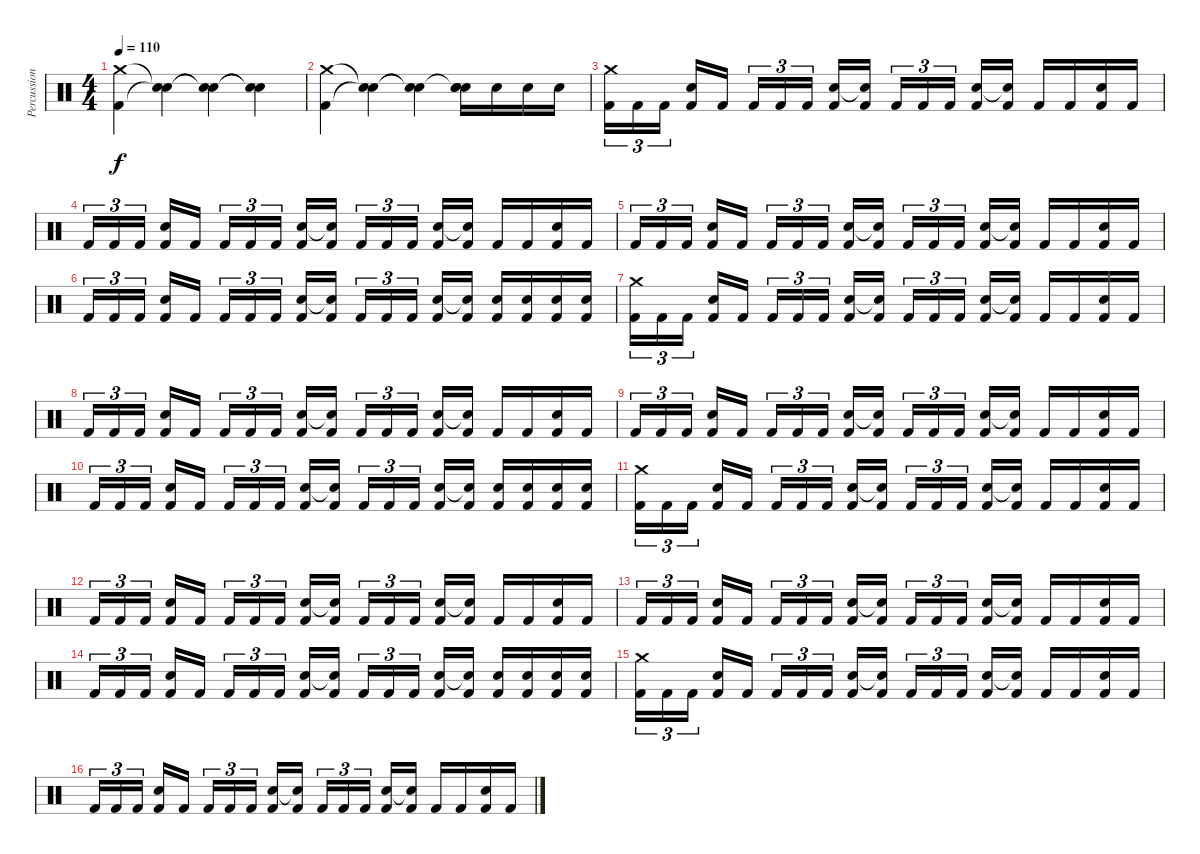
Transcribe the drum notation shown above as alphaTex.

\track ("Percussion" "Percussion") {instrument percussion}
\staff {score}
\articulation defaults
\ts (4 4)
\tempo 110
\clef neutral
\ks c
("Crash medium (hit)" "Kick (hit) 2").4{dy f} ("Snare (hit)"{t} "Snare (hit)"{t}).4 ("Snare (hit)"{t} "Snare (hit)"{t}).4 ("Snare (hit)"{t} "Snare (hit)"{t}).4 |
("Crash medium (hit)" "Kick (hit) 2").4 ("Snare (hit)"{t} "Snare (hit)"{t}).4 ("Snare (hit)"{t} "Snare (hit)"{t}).4 ("Snare (hit)"{t} "Snare (hit) 2" "Snare (hit)").16 "Electric Snare (hit)".16 "Electric Snare (hit)".16 "Electric Snare (hit)".16 |
("Crash medium (hit)" "Kick (hit) 2").16{tu (3 2)} "Kick (hit) 2".16{tu (3 2)} "Kick (hit) 2".16{tu (3 2)} ("Electric Snare (hit)" "Kick (hit) 2").16 "Kick (hit) 2".16 "Kick (hit) 2".16{tu (3 2)} "Kick (hit) 2".16{tu (3 2)} "Kick (hit) 2".16{tu (3 2)} ("Snare (hit) 2" "Kick (hit) 2").16 ("Snare (hit)"{t} "Kick (hit) 2").16 "Kick (hit) 2".16{tu (3 2)} "Kick (hit) 2".16{tu (3 2)} "Kick (hit) 2".16{tu (3 2)} ("Electric Snare (hit)" "Kick (hit) 2").16 ("Snare (hit)"{t} "Kick (hit) 2").16 "Kick (hit) 2".16 "Kick (hit) 2".16 ("Electric Snare (hit)" "Kick (hit) 2").16 "Kick (hit) 2".16 |
"Kick (hit) 2".16{tu (3 2)} "Kick (hit) 2".16{tu (3 2)} "Kick (hit) 2".16{tu (3 2)} ("Electric Snare (hit)" "Kick (hit) 2").16 "Kick (hit) 2".16 "Kick (hit) 2".16{tu (3 2)} "Kick (hit) 2".16{tu (3 2)} "Kick (hit) 2".16{tu (3 2)} ("Snare (hit) 2" "Kick (hit) 2").16 ("Snare (hit)"{t} "Kick (hit) 2").16 "Kick (hit) 2".16{tu (3 2)} "Kick (hit) 2".16{tu (3 2)} "Kick (hit) 2".16{tu (3 2)} ("Electric Snare (hit)" "Kick (hit) 2").16 ("Snare (hit)"{t} "Kick (hit) 2").16 "Kick (hit) 2".16 "Kick (hit) 2".16 ("Electric Snare (hit)" "Kick (hit) 2").16 "Kick (hit) 2".16 |
"Kick (hit) 2".16{tu (3 2)} "Kick (hit) 2".16{tu (3 2)} "Kick (hit) 2".16{tu (3 2)} ("Electric Snare (hit)" "Kick (hit) 2").16 "Kick (hit) 2".16 "Kick (hit) 2".16{tu (3 2)} "Kick (hit) 2".16{tu (3 2)} "Kick (hit) 2".16{tu (3 2)} ("Snare (hit) 2" "Kick (hit) 2").16 ("Snare (hit)"{t} "Kick (hit) 2").16 "Kick (hit) 2".16{tu (3 2)} "Kick (hit) 2".16{tu (3 2)} "Kick (hit) 2".16{tu (3 2)} ("Electric Snare (hit)" "Kick (hit) 2").16 ("Snare (hit)"{t} "Kick (hit) 2").16 "Kick (hit) 2".16 "Kick (hit) 2".16 ("Electric Snare (hit)" "Kick (hit) 2").16 "Kick (hit) 2".16 |
"Kick (hit) 2".16{tu (3 2)} "Kick (hit) 2".16{tu (3 2)} "Kick (hit) 2".16{tu (3 2)} ("Electric Snare (hit)" "Kick (hit) 2").16 "Kick (hit) 2".16 "Kick (hit) 2".16{tu (3 2)} "Kick (hit) 2".16{tu (3 2)} "Kick (hit) 2".16{tu (3 2)} ("Snare (hit) 2" "Kick (hit) 2").16 ("Snare (hit)"{t} "Kick (hit) 2").16 "Kick (hit) 2".16{tu (3 2)} "Kick (hit) 2".16{tu (3 2)} "Kick (hit) 2".16{tu (3 2)} ("Electric Snare (hit)" "Kick (hit) 2").16 ("Snare (hit)"{t} "Kick (hit) 2").16 ("Electric Snare (hit)" "Kick (hit) 2").16 ("Electric Snare (hit)" "Kick (hit) 2").16 ("Snare (hit) 2" "Kick (hit) 2").16 ("Electric Snare (hit)" "Kick (hit) 2").16 |
("Crash medium (hit)" "Kick (hit) 2").16{tu (3 2)} "Kick (hit) 2".16{tu (3 2)} "Kick (hit) 2".16{tu (3 2)} ("Electric Snare (hit)" "Kick (hit) 2").16 "Kick (hit) 2".16 "Kick (hit) 2".16{tu (3 2)} "Kick (hit) 2".16{tu (3 2)} "Kick (hit) 2".16{tu (3 2)} ("Snare (hit) 2" "Kick (hit) 2").16 ("Snare (hit)"{t} "Kick (hit) 2").16 "Kick (hit) 2".16{tu (3 2)} "Kick (hit) 2".16{tu (3 2)} "Kick (hit) 2".16{tu (3 2)} ("Electric Snare (hit)" "Kick (hit) 2").16 ("Snare (hit)"{t} "Kick (hit) 2").16 "Kick (hit) 2".16 "Kick (hit) 2".16 ("Electric Snare (hit)" "Kick (hit) 2").16 "Kick (hit) 2".16 |
"Kick (hit) 2".16{tu (3 2)} "Kick (hit) 2".16{tu (3 2)} "Kick (hit) 2".16{tu (3 2)} ("Electric Snare (hit)" "Kick (hit) 2").16 "Kick (hit) 2".16 "Kick (hit) 2".16{tu (3 2)} "Kick (hit) 2".16{tu (3 2)} "Kick (hit) 2".16{tu (3 2)} ("Snare (hit) 2" "Kick (hit) 2").16 ("Snare (hit)"{t} "Kick (hit) 2").16 "Kick (hit) 2".16{tu (3 2)} "Kick (hit) 2".16{tu (3 2)} "Kick (hit) 2".16{tu (3 2)} ("Electric Snare (hit)" "Kick (hit) 2").16 ("Snare (hit)"{t} "Kick (hit) 2").16 "Kick (hit) 2".16 "Kick (hit) 2".16 ("Electric Snare (hit)" "Kick (hit) 2").16 "Kick (hit) 2".16 |
"Kick (hit) 2".16{tu (3 2)} "Kick (hit) 2".16{tu (3 2)} "Kick (hit) 2".16{tu (3 2)} ("Electric Snare (hit)" "Kick (hit) 2").16 "Kick (hit) 2".16 "Kick (hit) 2".16{tu (3 2)} "Kick (hit) 2".16{tu (3 2)} "Kick (hit) 2".16{tu (3 2)} ("Snare (hit) 2" "Kick (hit) 2").16 ("Snare (hit)"{t} "Kick (hit) 2").16 "Kick (hit) 2".16{tu (3 2)} "Kick (hit) 2".16{tu (3 2)} "Kick (hit) 2".16{tu (3 2)} ("Electric Snare (hit)" "Kick (hit) 2").16 ("Snare (hit)"{t} "Kick (hit) 2").16 "Kick (hit) 2".16 "Kick (hit) 2".16 ("Electric Snare (hit)" "Kick (hit) 2").16 "Kick (hit) 2".16 |
"Kick (hit) 2".16{tu (3 2)} "Kick (hit) 2".16{tu (3 2)} "Kick (hit) 2".16{tu (3 2)} ("Electric Snare (hit)" "Kick (hit) 2").16 "Kick (hit) 2".16 "Kick (hit) 2".16{tu (3 2)} "Kick (hit) 2".16{tu (3 2)} "Kick (hit) 2".16{tu (3 2)} ("Snare (hit) 2" "Kick (hit) 2").16 ("Snare (hit)"{t} "Kick (hit) 2").16 "Kick (hit) 2".16{tu (3 2)} "Kick (hit) 2".16{tu (3 2)} "Kick (hit) 2".16{tu (3 2)} ("Electric Snare (hit)" "Kick (hit) 2").16 ("Snare (hit)"{t} "Kick (hit) 2").16 ("Electric Snare (hit)" "Kick (hit) 2").16 ("Electric Snare (hit)" "Kick (hit) 2").16 ("Snare (hit) 2" "Kick (hit) 2").16 ("Electric Snare (hit)" "Kick (hit) 2").16 |
("Crash medium (hit)" "Kick (hit) 2").16{tu (3 2)} "Kick (hit) 2".16{tu (3 2)} "Kick (hit) 2".16{tu (3 2)} ("Electric Snare (hit)" "Kick (hit) 2").16 "Kick (hit) 2".16 "Kick (hit) 2".16{tu (3 2)} "Kick (hit) 2".16{tu (3 2)} "Kick (hit) 2".16{tu (3 2)} ("Snare (hit) 2" "Kick (hit) 2").16 ("Snare (hit)"{t} "Kick (hit) 2").16 "Kick (hit) 2".16{tu (3 2)} "Kick (hit) 2".16{tu (3 2)} "Kick (hit) 2".16{tu (3 2)} ("Electric Snare (hit)" "Kick (hit) 2").16 ("Snare (hit)"{t} "Kick (hit) 2").16 "Kick (hit) 2".16 "Kick (hit) 2".16 ("Electric Snare (hit)" "Kick (hit) 2").16 "Kick (hit) 2".16 |
"Kick (hit) 2".16{tu (3 2)} "Kick (hit) 2".16{tu (3 2)} "Kick (hit) 2".16{tu (3 2)} ("Electric Snare (hit)" "Kick (hit) 2").16 "Kick (hit) 2".16 "Kick (hit) 2".16{tu (3 2)} "Kick (hit) 2".16{tu (3 2)} "Kick (hit) 2".16{tu (3 2)} ("Snare (hit) 2" "Kick (hit) 2").16 ("Snare (hit)"{t} "Kick (hit) 2").16 "Kick (hit) 2".16{tu (3 2)} "Kick (hit) 2".16{tu (3 2)} "Kick (hit) 2".16{tu (3 2)} ("Electric Snare (hit)" "Kick (hit) 2").16 ("Snare (hit)"{t} "Kick (hit) 2").16 "Kick (hit) 2".16 "Kick (hit) 2".16 ("Electric Snare (hit)" "Kick (hit) 2").16 "Kick (hit) 2".16 |
"Kick (hit) 2".16{tu (3 2)} "Kick (hit) 2".16{tu (3 2)} "Kick (hit) 2".16{tu (3 2)} ("Electric Snare (hit)" "Kick (hit) 2").16 "Kick (hit) 2".16 "Kick (hit) 2".16{tu (3 2)} "Kick (hit) 2".16{tu (3 2)} "Kick (hit) 2".16{tu (3 2)} ("Snare (hit) 2" "Kick (hit) 2").16 ("Snare (hit)"{t} "Kick (hit) 2").16 "Kick (hit) 2".16{tu (3 2)} "Kick (hit) 2".16{tu (3 2)} "Kick (hit) 2".16{tu (3 2)} ("Electric Snare (hit)" "Kick (hit) 2").16 ("Snare (hit)"{t} "Kick (hit) 2").16 "Kick (hit) 2".16 "Kick (hit) 2".16 ("Electric Snare (hit)" "Kick (hit) 2").16 "Kick (hit) 2".16 |
"Kick (hit) 2".16{tu (3 2)} "Kick (hit) 2".16{tu (3 2)} "Kick (hit) 2".16{tu (3 2)} ("Electric Snare (hit)" "Kick (hit) 2").16 "Kick (hit) 2".16 "Kick (hit) 2".16{tu (3 2)} "Kick (hit) 2".16{tu (3 2)} "Kick (hit) 2".16{tu (3 2)} ("Snare (hit) 2" "Kick (hit) 2").16 ("Snare (hit)"{t} "Kick (hit) 2").16 "Kick (hit) 2".16{tu (3 2)} "Kick (hit) 2".16{tu (3 2)} "Kick (hit) 2".16{tu (3 2)} ("Electric Snare (hit)" "Kick (hit) 2").16 ("Snare (hit)"{t} "Kick (hit) 2").16 ("Electric Snare (hit)" "Kick (hit) 2").16 ("Electric Snare (hit)" "Kick (hit) 2").16 ("Snare (hit) 2" "Kick (hit) 2").16 ("Electric Snare (hit)" "Kick (hit) 2").16 |
("Crash medium (hit)" "Kick (hit) 2").16{tu (3 2)} "Kick (hit) 2".16{tu (3 2)} "Kick (hit) 2".16{tu (3 2)} ("Electric Snare (hit)" "Kick (hit) 2").16 "Kick (hit) 2".16 "Kick (hit) 2".16{tu (3 2)} "Kick (hit) 2".16{tu (3 2)} "Kick (hit) 2".16{tu (3 2)} ("Snare (hit) 2" "Kick (hit) 2").16 ("Snare (hit)"{t} "Kick (hit) 2").16 "Kick (hit) 2".16{tu (3 2)} "Kick (hit) 2".16{tu (3 2)} "Kick (hit) 2".16{tu (3 2)} ("Electric Snare (hit)" "Kick (hit) 2").16 ("Snare (hit)"{t} "Kick (hit) 2").16 "Kick (hit) 2".16 "Kick (hit) 2".16 ("Electric Snare (hit)" "Kick (hit) 2").16 "Kick (hit) 2".16 |
"Kick (hit) 2".16{tu (3 2)} "Kick (hit) 2".16{tu (3 2)} "Kick (hit) 2".16{tu (3 2)} ("Electric Snare (hit)" "Kick (hit) 2").16 "Kick (hit) 2".16 "Kick (hit) 2".16{tu (3 2)} "Kick (hit) 2".16{tu (3 2)} "Kick (hit) 2".16{tu (3 2)} ("Snare (hit) 2" "Kick (hit) 2").16 ("Snare (hit)"{t} "Kick (hit) 2").16 "Kick (hit) 2".16{tu (3 2)} "Kick (hit) 2".16{tu (3 2)} "Kick (hit) 2".16{tu (3 2)} ("Electric Snare (hit)" "Kick (hit) 2").16 ("Snare (hit)"{t} "Kick (hit) 2").16 "Kick (hit) 2".16 "Kick (hit) 2".16 ("Electric Snare (hit)" "Kick (hit) 2").16 "Kick (hit) 2".16
